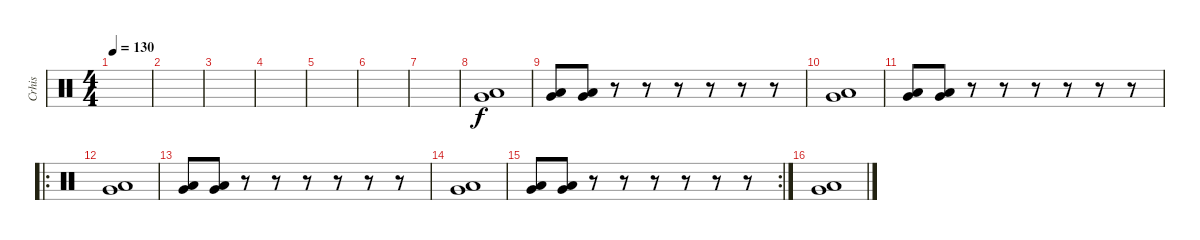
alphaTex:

\track ("Crhis" "Crhis") {instrument percussion}
\staff {score}
\articulation defaults
\ts (4 4)
\tempo 130
\clef neutral
\ks c
|
|
|
|
|
|
|
("Very Low Tom (hit)" "Low Floor Tom (hit)").1 |
("Very Low Tom (hit)" "Low Floor Tom (hit)").8 ("Very Low Tom (hit)" "Low Floor Tom (hit)").8 r.8 r.8 r.8 r.8 r.8 r.8 |
("Very Low Tom (hit)" "Low Floor Tom (hit)").1 |
("Very Low Tom (hit)" "Low Floor Tom (hit)").8 ("Very Low Tom (hit)" "Low Floor Tom (hit)").8 r.8 r.8 r.8 r.8 r.8 r.8 |
\ro
("Very Low Tom (hit)" "Low Floor Tom (hit)").1 |
("Very Low Tom (hit)" "Low Floor Tom (hit)").8 ("Very Low Tom (hit)" "Low Floor Tom (hit)").8 r.8 r.8 r.8 r.8 r.8 r.8 |
("Very Low Tom (hit)" "Low Floor Tom (hit)").1 |
\rc 2
("Very Low Tom (hit)" "Low Floor Tom (hit)").8 ("Very Low Tom (hit)" "Low Floor Tom (hit)").8 r.8 r.8 r.8 r.8 r.8 r.8 |
("Very Low Tom (hit)" "Low Floor Tom (hit)").1
